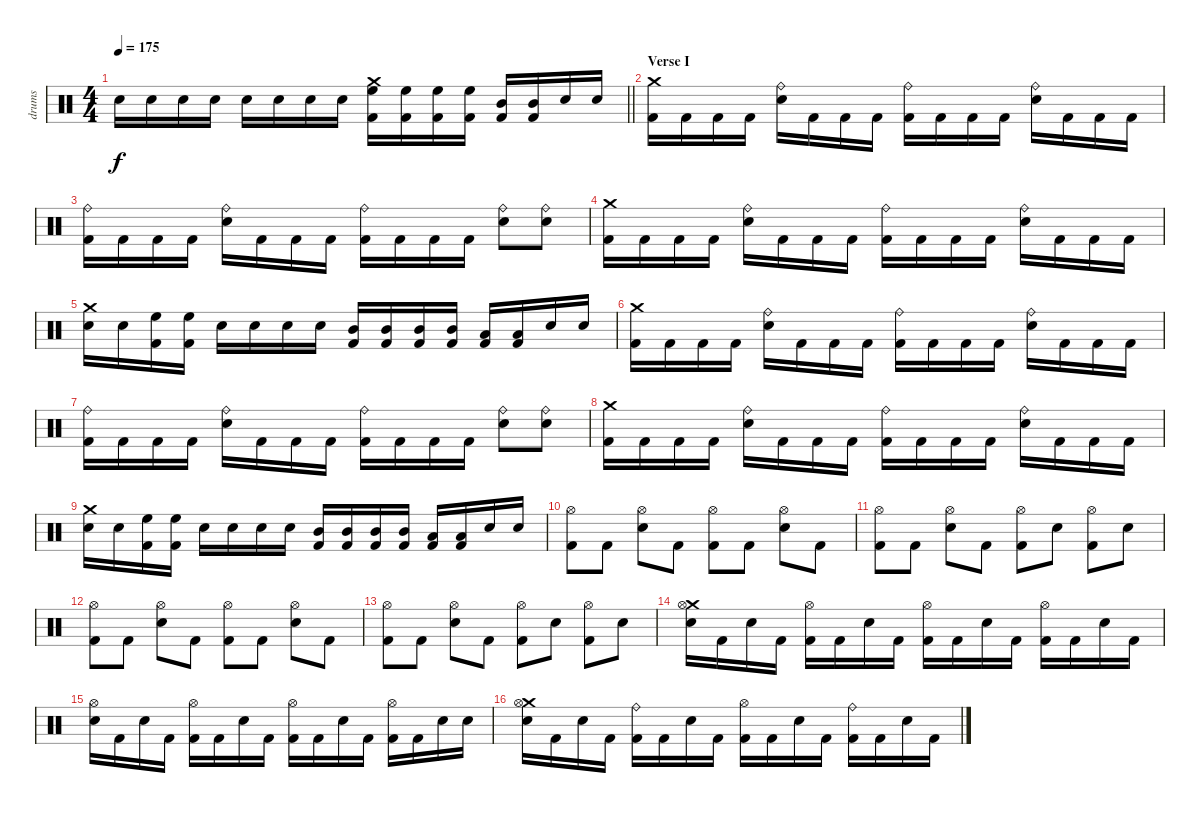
\track ("drums" "drums") {instrument percussion}
\staff {score}
\articulation defaults
\ts (4 4)
\tempo 175
\clef neutral
\barLineRight lightlight
\ks c "Snare (hit) 2".16{dy f} "Snare (hit) 2".16 "Snare (hit) 2".16 "Snare (hit) 2".16 "Snare (hit) 2".16 "Snare (hit) 2".16 "Snare (hit) 2".16 "Snare (hit) 2".16
("Crash medium (hit)" "High Floor Tom (hit)" "Kick (hit) 2").16 ("High Floor Tom (hit)" "Kick (hit) 2").16 ("High Floor Tom (hit)" "Kick (hit) 2").16 ("High Floor Tom (hit)" "Kick (hit) 2").16 ("Mid Tom (hit)" "Kick (hit) 2").16 ("Mid Tom (hit)" "Kick (hit) 2").16 "Snare (hit) 2".16 "Snare (hit) 2".16 |
\section ("" "Verse I")
("Crash medium (hit)" "Kick (hit) 2").16 "Kick (hit) 2".16 "Kick (hit) 2".16 "Kick (hit) 2".16 ("Ride (bell)" "Snare (hit) 2").16 "Kick (hit) 2".16 "Kick (hit) 2".16 "Kick (hit) 2".16 ("Ride (bell)" "Kick (hit) 2").16 "Kick (hit) 2".16 "Kick (hit) 2".16 "Kick (hit) 2".16 ("Ride (bell)" "Snare (hit) 2").16 "Kick (hit) 2".16 "Kick (hit) 2".16 "Kick (hit) 2".16 |
("Ride (bell)" "Kick (hit) 2").16 "Kick (hit) 2".16 "Kick (hit) 2".16 "Kick (hit) 2".16 ("Ride (bell)" "Snare (hit) 2").16 "Kick (hit) 2".16 "Kick (hit) 2".16 "Kick (hit) 2".16 ("Ride (bell)" "Kick (hit) 2").16 "Kick (hit) 2".16 "Kick (hit) 2".16 "Kick (hit) 2".16 ("Ride (bell)" "Snare (hit) 2").8 ("Ride (bell)" "Snare (hit) 2").8 |
("Crash medium (hit)" "Kick (hit) 2").16 "Kick (hit) 2".16 "Kick (hit) 2".16 "Kick (hit) 2".16 ("Ride (bell)" "Snare (hit) 2").16 "Kick (hit) 2".16 "Kick (hit) 2".16 "Kick (hit) 2".16 ("Ride (bell)" "Kick (hit) 2").16 "Kick (hit) 2".16 "Kick (hit) 2".16 "Kick (hit) 2".16 ("Ride (bell)" "Snare (hit) 2").16 "Kick (hit) 2".16 "Kick (hit) 2".16 "Kick (hit) 2".16 |
("Crash medium (hit)" "Snare (hit) 2").16 "Snare (hit) 2".16 ("High Floor Tom (hit)" "Kick (hit) 2").16 ("High Floor Tom (hit)" "Kick (hit) 2").16 "Snare (hit) 2".16 "Snare (hit) 2".16 "Snare (hit) 2".16 "Snare (hit) 2".16 ("Mid Tom (hit)" "Kick (hit) 2").16 ("Mid Tom (hit)" "Kick (hit) 2").16 ("Mid Tom (hit)" "Kick (hit) 2").16 ("Mid Tom (hit)" "Kick (hit) 2").16 ("Low Tom (hit)" "Kick (hit) 2").16 ("Low Tom (hit)" "Kick (hit) 2").16 "Snare (hit) 2".16 "Snare (hit) 2".16 |
("Crash medium (hit)" "Kick (hit) 2").16 "Kick (hit) 2".16 "Kick (hit) 2".16 "Kick (hit) 2".16 ("Ride (bell)" "Snare (hit) 2").16 "Kick (hit) 2".16 "Kick (hit) 2".16 "Kick (hit) 2".16 ("Ride (bell)" "Kick (hit) 2").16 "Kick (hit) 2".16 "Kick (hit) 2".16 "Kick (hit) 2".16 ("Ride (bell)" "Snare (hit) 2").16 "Kick (hit) 2".16 "Kick (hit) 2".16 "Kick (hit) 2".16 |
("Ride (bell)" "Kick (hit) 2").16 "Kick (hit) 2".16 "Kick (hit) 2".16 "Kick (hit) 2".16 ("Ride (bell)" "Snare (hit) 2").16 "Kick (hit) 2".16 "Kick (hit) 2".16 "Kick (hit) 2".16 ("Ride (bell)" "Kick (hit) 2").16 "Kick (hit) 2".16 "Kick (hit) 2".16 "Kick (hit) 2".16 ("Ride (bell)" "Snare (hit) 2").8 ("Ride (bell)" "Snare (hit) 2").8 |
("Crash medium (hit)" "Kick (hit) 2").16 "Kick (hit) 2".16 "Kick (hit) 2".16 "Kick (hit) 2".16 ("Ride (bell)" "Snare (hit) 2").16 "Kick (hit) 2".16 "Kick (hit) 2".16 "Kick (hit) 2".16 ("Ride (bell)" "Kick (hit) 2").16 "Kick (hit) 2".16 "Kick (hit) 2".16 "Kick (hit) 2".16 ("Ride (bell)" "Snare (hit) 2").16 "Kick (hit) 2".16 "Kick (hit) 2".16 "Kick (hit) 2".16 |
("Crash medium (hit)" "Snare (hit) 2").16 "Snare (hit) 2".16 ("High Floor Tom (hit)" "Kick (hit) 2").16 ("High Floor Tom (hit)" "Kick (hit) 2").16 "Snare (hit) 2".16 "Snare (hit) 2".16 "Snare (hit) 2".16 "Snare (hit) 2".16 ("Mid Tom (hit)" "Kick (hit) 2").16 ("Mid Tom (hit)" "Kick (hit) 2").16 ("Mid Tom (hit)" "Kick (hit) 2").16 ("Mid Tom (hit)" "Kick (hit) 2").16 ("Low Tom (hit)" "Kick (hit) 2").16 ("Low Tom (hit)" "Kick (hit) 2").16 "Snare (hit) 2".16 "Snare (hit) 2".16 |
("Hi-Hat (open)" "Kick (hit) 2").8 "Kick (hit) 2".8 ("Hi-Hat (open)" "Snare (hit) 2").8 "Kick (hit) 2".8 ("Hi-Hat (open)" "Kick (hit) 2").8 "Kick (hit) 2".8 ("Hi-Hat (open)" "Snare (hit) 2").8 "Kick (hit) 2".8 |
("Hi-Hat (open)" "Kick (hit) 2").8 "Kick (hit) 2".8 ("Hi-Hat (open)" "Snare (hit) 2").8 "Kick (hit) 2".8 ("Hi-Hat (open)" "Kick (hit) 2").8 "Snare (hit) 2".8 ("Hi-Hat (open)" "Kick (hit) 2").8 "Snare (hit) 2".8 |
("Hi-Hat (open)" "Kick (hit) 2").8 "Kick (hit) 2".8 ("Hi-Hat (open)" "Snare (hit) 2").8 "Kick (hit) 2".8 ("Hi-Hat (open)" "Kick (hit) 2").8 "Kick (hit) 2".8 ("Hi-Hat (open)" "Snare (hit) 2").8 "Kick (hit) 2".8 |
("Hi-Hat (open)" "Kick (hit) 2").8 "Kick (hit) 2".8 ("Hi-Hat (open)" "Snare (hit) 2").8 "Kick (hit) 2".8 ("Hi-Hat (open)" "Kick (hit) 2").8 "Snare (hit) 2".8 ("Hi-Hat (open)" "Kick (hit) 2").8 "Snare (hit) 2".8 |
("Crash medium (hit)" "Hi-Hat (open)" "Snare (hit) 2").16 "Kick (hit) 2".16 "Snare (hit) 2".16 "Kick (hit) 2".16 ("Hi-Hat (open)" "Kick (hit) 2").16 "Kick (hit) 2".16 "Snare (hit) 2".16 "Kick (hit) 2".16 ("Hi-Hat (open)" "Kick (hit) 2").16 "Kick (hit) 2".16 "Snare (hit) 2".16 "Kick (hit) 2".16 ("Hi-Hat (open)" "Kick (hit) 2").16 "Kick (hit) 2".16 "Snare (hit) 2".16 "Kick (hit) 2".16 |
("Hi-Hat (open)" "Snare (hit) 2").16 "Kick (hit) 2".16 "Snare (hit) 2".16 "Kick (hit) 2".16 ("Hi-Hat (open)" "Kick (hit) 2").16 "Kick (hit) 2".16 "Snare (hit) 2".16 "Kick (hit) 2".16 ("Hi-Hat (open)" "Kick (hit) 2").16 "Kick (hit) 2".16 "Snare (hit) 2".16 "Kick (hit) 2".16 ("Hi-Hat (open)" "Kick (hit) 2").16 "Kick (hit) 2".16 "Snare (hit) 2".16 "Snare (hit) 2".16 |
("Crash medium (hit)" "Hi-Hat (open)" "Snare (hit) 2").16 "Kick (hit) 2".16 "Snare (hit) 2".16 "Kick (hit) 2".16 ("Ride (bell)" "Kick (hit) 2").16 "Kick (hit) 2".16 "Snare (hit) 2".16 "Kick (hit) 2".16 ("Hi-Hat (open)" "Kick (hit) 2").16 "Kick (hit) 2".16 "Snare (hit) 2".16 "Kick (hit) 2".16 ("Ride (bell)" "Kick (hit) 2").16 "Kick (hit) 2".16 "Snare (hit) 2".16 "Kick (hit) 2".16
